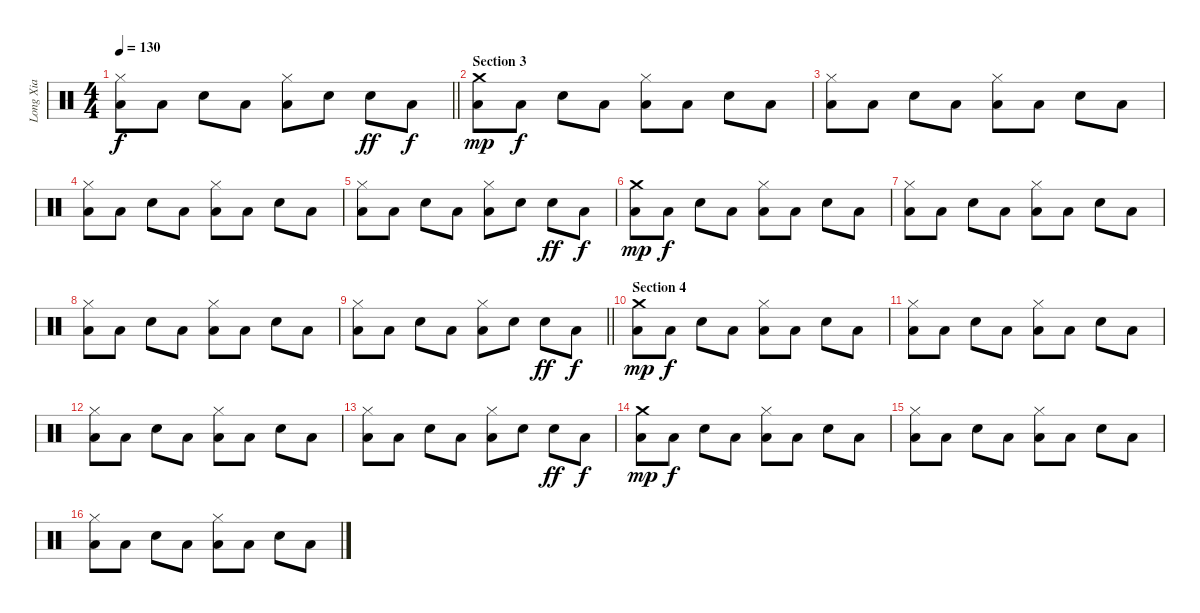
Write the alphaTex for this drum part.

\track ("Long Xia" "Long Xia") {instrument percussion}
\staff {score}
\articulation defaults
\ts (4 4)
\tempo 130
\clef neutral
\barLineRight lightlight
\ks c
("Low Floor Tom (hit)" "Hi-Hat (closed)").8{dy f} "Low Floor Tom (hit)".8 "Electric Snare (hit)".8 "Low Floor Tom (hit)".8 ("Low Floor Tom (hit)" "Hi-Hat (closed)").8 "Electric Snare (hit)".8 "Electric Snare (hit)".8{dy ff} "Low Floor Tom (hit)".8{dy f} |
\section ("" "Section 3")
("Low Floor Tom (hit)" "Crash medium (hit)").8{dy mp} "Low Floor Tom (hit)".8{dy f} "Electric Snare (hit)".8 "Low Floor Tom (hit)".8 ("Low Floor Tom (hit)" "Hi-Hat (closed)").8 "Low Floor Tom (hit)".8 "Electric Snare (hit)".8 "Low Floor Tom (hit)".8 |
("Low Floor Tom (hit)" "Hi-Hat (closed)").8 "Low Floor Tom (hit)".8 "Electric Snare (hit)".8 "Low Floor Tom (hit)".8 ("Low Floor Tom (hit)" "Hi-Hat (closed)").8 "Low Floor Tom (hit)".8 "Electric Snare (hit)".8 "Low Floor Tom (hit)".8 |
("Low Floor Tom (hit)" "Hi-Hat (closed)").8 "Low Floor Tom (hit)".8 "Electric Snare (hit)".8 "Low Floor Tom (hit)".8 ("Low Floor Tom (hit)" "Hi-Hat (closed)").8 "Low Floor Tom (hit)".8 "Electric Snare (hit)".8 "Low Floor Tom (hit)".8 |
("Low Floor Tom (hit)" "Hi-Hat (closed)").8 "Low Floor Tom (hit)".8 "Electric Snare (hit)".8 "Low Floor Tom (hit)".8 ("Low Floor Tom (hit)" "Hi-Hat (closed)").8 "Electric Snare (hit)".8 "Electric Snare (hit)".8{dy ff} "Low Floor Tom (hit)".8{dy f} |
("Low Floor Tom (hit)" "Crash medium (hit)").8{dy mp} "Low Floor Tom (hit)".8{dy f} "Electric Snare (hit)".8 "Low Floor Tom (hit)".8 ("Low Floor Tom (hit)" "Hi-Hat (closed)").8 "Low Floor Tom (hit)".8 "Electric Snare (hit)".8 "Low Floor Tom (hit)".8 |
("Low Floor Tom (hit)" "Hi-Hat (closed)").8 "Low Floor Tom (hit)".8 "Electric Snare (hit)".8 "Low Floor Tom (hit)".8 ("Low Floor Tom (hit)" "Hi-Hat (closed)").8 "Low Floor Tom (hit)".8 "Electric Snare (hit)".8 "Low Floor Tom (hit)".8 |
("Low Floor Tom (hit)" "Hi-Hat (closed)").8 "Low Floor Tom (hit)".8 "Electric Snare (hit)".8 "Low Floor Tom (hit)".8 ("Low Floor Tom (hit)" "Hi-Hat (closed)").8 "Low Floor Tom (hit)".8 "Electric Snare (hit)".8 "Low Floor Tom (hit)".8 |
\barLineRight lightlight
("Low Floor Tom (hit)" "Hi-Hat (closed)").8 "Low Floor Tom (hit)".8 "Electric Snare (hit)".8 "Low Floor Tom (hit)".8 ("Low Floor Tom (hit)" "Hi-Hat (closed)").8 "Electric Snare (hit)".8 "Electric Snare (hit)".8{dy ff} "Low Floor Tom (hit)".8{dy f} |
\section ("" "Section 4")
("Low Floor Tom (hit)" "Crash medium (hit)").8{dy mp} "Low Floor Tom (hit)".8{dy f} "Electric Snare (hit)".8 "Low Floor Tom (hit)".8 ("Low Floor Tom (hit)" "Hi-Hat (closed)").8 "Low Floor Tom (hit)".8 "Electric Snare (hit)".8 "Low Floor Tom (hit)".8 |
("Low Floor Tom (hit)" "Hi-Hat (closed)").8 "Low Floor Tom (hit)".8 "Electric Snare (hit)".8 "Low Floor Tom (hit)".8 ("Low Floor Tom (hit)" "Hi-Hat (closed)").8 "Low Floor Tom (hit)".8 "Electric Snare (hit)".8 "Low Floor Tom (hit)".8 |
("Low Floor Tom (hit)" "Hi-Hat (closed)").8 "Low Floor Tom (hit)".8 "Electric Snare (hit)".8 "Low Floor Tom (hit)".8 ("Low Floor Tom (hit)" "Hi-Hat (closed)").8 "Low Floor Tom (hit)".8 "Electric Snare (hit)".8 "Low Floor Tom (hit)".8 |
("Low Floor Tom (hit)" "Hi-Hat (closed)").8 "Low Floor Tom (hit)".8 "Electric Snare (hit)".8 "Low Floor Tom (hit)".8 ("Low Floor Tom (hit)" "Hi-Hat (closed)").8 "Electric Snare (hit)".8 "Electric Snare (hit)".8{dy ff} "Low Floor Tom (hit)".8{dy f} |
("Low Floor Tom (hit)" "Crash medium (hit)").8{dy mp} "Low Floor Tom (hit)".8{dy f} "Electric Snare (hit)".8 "Low Floor Tom (hit)".8 ("Low Floor Tom (hit)" "Hi-Hat (closed)").8 "Low Floor Tom (hit)".8 "Electric Snare (hit)".8 "Low Floor Tom (hit)".8 |
("Low Floor Tom (hit)" "Hi-Hat (closed)").8 "Low Floor Tom (hit)".8 "Electric Snare (hit)".8 "Low Floor Tom (hit)".8 ("Low Floor Tom (hit)" "Hi-Hat (closed)").8 "Low Floor Tom (hit)".8 "Electric Snare (hit)".8 "Low Floor Tom (hit)".8 |
("Low Floor Tom (hit)" "Hi-Hat (closed)").8 "Low Floor Tom (hit)".8 "Electric Snare (hit)".8 "Low Floor Tom (hit)".8 ("Low Floor Tom (hit)" "Hi-Hat (closed)").8 "Low Floor Tom (hit)".8 "Electric Snare (hit)".8 "Low Floor Tom (hit)".8
